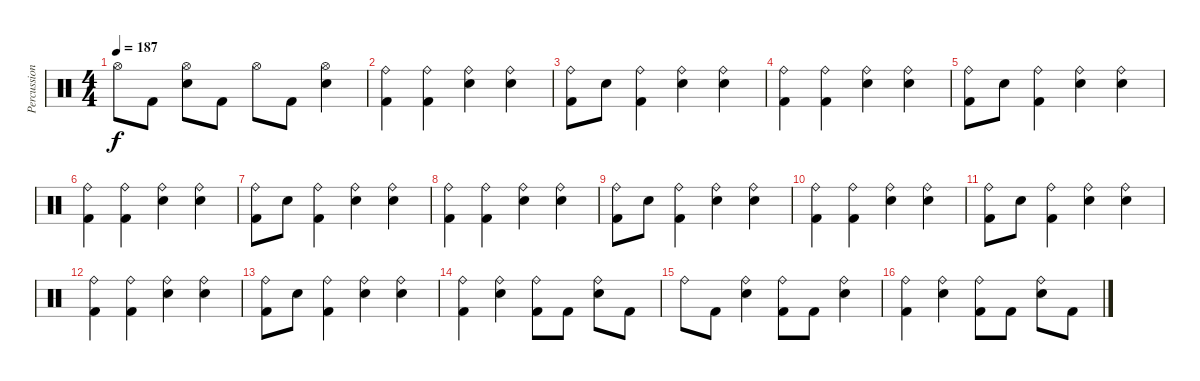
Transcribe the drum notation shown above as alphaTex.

\track ("Percussion" "Percussion") {instrument percussion}
\staff {score}
\articulation defaults
\ts (4 4)
\tempo 187
\clef neutral
\ks c "Hi-Hat (open)".8{dy f} "Kick (hit) 2".8
("Hi-Hat (open)" "Snare (hit) 2").8 "Kick (hit) 2".8 "Hi-Hat (open)".8 "Kick (hit) 2".8 ("Hi-Hat (open)" "Snare (hit) 2").4 |
("Ride (bell)" "Kick (hit) 2").4 ("Ride (bell)" "Kick (hit) 2").4 ("Ride (bell)" "Snare (hit) 2").4 ("Ride (bell)" "Snare (hit) 2").4 |
("Ride (bell)" "Kick (hit) 2").8 "Snare (hit) 2".8 ("Ride (bell)" "Kick (hit) 2").4 ("Ride (bell)" "Snare (hit) 2").4 ("Ride (bell)" "Snare (hit) 2").4 |
("Ride (bell)" "Kick (hit) 2").4 ("Ride (bell)" "Kick (hit) 2").4 ("Ride (bell)" "Snare (hit) 2").4 ("Ride (bell)" "Snare (hit) 2").4 |
("Ride (bell)" "Kick (hit) 2").8 "Snare (hit) 2".8 ("Ride (bell)" "Kick (hit) 2").4 ("Ride (bell)" "Snare (hit) 2").4 ("Ride (bell)" "Snare (hit) 2").4 |
("Ride (bell)" "Kick (hit) 2").4 ("Ride (bell)" "Kick (hit) 2").4 ("Ride (bell)" "Snare (hit) 2").4 ("Ride (bell)" "Snare (hit) 2").4 |
("Ride (bell)" "Kick (hit) 2").8 "Snare (hit) 2".8 ("Ride (bell)" "Kick (hit) 2").4 ("Ride (bell)" "Snare (hit) 2").4 ("Ride (bell)" "Snare (hit) 2").4 |
("Ride (bell)" "Kick (hit) 2").4 ("Ride (bell)" "Kick (hit) 2").4 ("Ride (bell)" "Snare (hit) 2").4 ("Ride (bell)" "Snare (hit) 2").4 |
("Ride (bell)" "Kick (hit) 2").8 "Snare (hit) 2".8 ("Ride (bell)" "Kick (hit) 2").4 ("Ride (bell)" "Snare (hit) 2").4 ("Ride (bell)" "Snare (hit) 2").4 |
("Ride (bell)" "Kick (hit) 2").4 ("Ride (bell)" "Kick (hit) 2").4 ("Ride (bell)" "Snare (hit) 2").4 ("Ride (bell)" "Snare (hit) 2").4 |
("Ride (bell)" "Kick (hit) 2").8 "Snare (hit) 2".8 ("Ride (bell)" "Kick (hit) 2").4 ("Ride (bell)" "Snare (hit) 2").4 ("Ride (bell)" "Snare (hit) 2").4 |
("Ride (bell)" "Kick (hit) 2").4 ("Ride (bell)" "Kick (hit) 2").4 ("Ride (bell)" "Snare (hit) 2").4 ("Ride (bell)" "Snare (hit) 2").4 |
("Ride (bell)" "Kick (hit) 2").8 "Snare (hit) 2".8 ("Ride (bell)" "Kick (hit) 2").4 ("Ride (bell)" "Snare (hit) 2").4 ("Ride (bell)" "Snare (hit) 2").4 |
("Ride (bell)" "Kick (hit) 2").4 ("Ride (bell)" "Snare (hit) 2").4 ("Ride (bell)" "Kick (hit) 2").8 "Kick (hit) 2".8 ("Ride (bell)" "Snare (hit) 2").8 "Kick (hit) 2".8 |
"Ride (bell)".8 "Kick (hit) 2".8 ("Ride (bell)" "Snare (hit) 2").4 ("Ride (bell)" "Kick (hit) 2").8 "Kick (hit) 2".8 ("Ride (bell)" "Snare (hit) 2").4 |
("Ride (bell)" "Kick (hit) 2").4 ("Ride (bell)" "Snare (hit) 2").4 ("Ride (bell)" "Kick (hit) 2").8 "Kick (hit) 2".8 ("Ride (bell)" "Snare (hit) 2").8 "Kick (hit) 2".8
